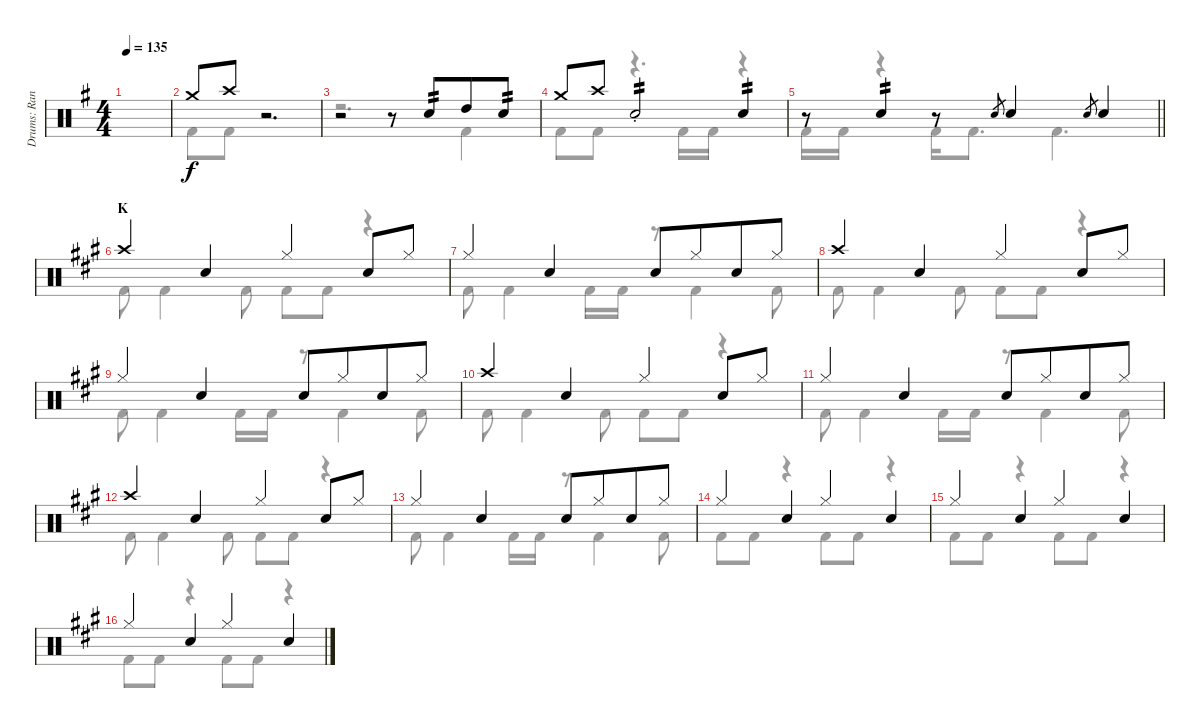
\track ("Drums: Randy" "Drums: Ran") {instrument percussion}
\staff {score}
\articulation defaults
\voice
\ts (4 4)
\tempo 135
\clef neutral
\ks g
|
"Crash medium (hit)".8 "Crash high (hit)".8 r.2{d} |
r.2 r.8 "Snare (hit) 2".8{tp 2 beam merge} "High Tom (hit)".8 "Snare (hit) 2".8{tp 2} |
"Crash medium (hit)".8 "Crash high (hit)".8 "Snare (hit) 2"{st}.2{tp 2} "Snare (hit) 2".4{tp 2} |
\barLineRight lightlight
r.8 "Snare (hit) 2".4{tp 2} r.8 "Electric Snare (hit)".8{gr} "Snare (hit) 2".4 "Electric Snare (hit)".8{gr} "Snare (hit) 2".4 |
\section ("" "K")
\ks a "Crash high (hit)".4 "Snare (hit) 2".4 "Hi-Hat (closed)".4 "Snare (hit) 2".8 "Hi-Hat (closed)".8
|
"Hi-Hat (closed)".4 "Snare (hit) 2".4 "Snare (hit) 2".8 "Hi-Hat (closed)".8{beam merge} "Snare (hit) 2".8 "Hi-Hat (closed)".8 |
"Crash high (hit)".4 "Snare (hit) 2".4 "Hi-Hat (closed)".4 "Snare (hit) 2".8 "Hi-Hat (closed)".8 |
"Hi-Hat (closed)".4 "Snare (hit) 2".4 "Snare (hit) 2".8 "Hi-Hat (closed)".8{beam merge} "Snare (hit) 2".8 "Hi-Hat (closed)".8 |
"Crash high (hit)".4 "Snare (hit) 2".4 "Hi-Hat (closed)".4 "Snare (hit) 2".8 "Hi-Hat (closed)".8 |
"Hi-Hat (closed)".4 "Snare (hit) 2".4 "Snare (hit) 2".8 "Hi-Hat (closed)".8{beam merge} "Snare (hit) 2".8 "Hi-Hat (closed)".8 |
"Crash high (hit)".4 "Snare (hit) 2".4 "Hi-Hat (closed)".4 "Snare (hit) 2".8 "Hi-Hat (closed)".8 |
"Hi-Hat (closed)".4 "Snare (hit) 2".4 "Snare (hit) 2".8 "Hi-Hat (closed)".8{beam merge} "Snare (hit) 2".8 "Hi-Hat (closed)".8 |
"Hi-Hat (closed)".4 "Snare (hit) 2".4 "Hi-Hat (closed)".4 "Snare (hit) 2".4 |
"Hi-Hat (closed)".4 "Snare (hit) 2".4 "Hi-Hat (closed)".4 "Snare (hit) 2".4 |
"Hi-Hat (closed)".4 "Snare (hit) 2".4 "Hi-Hat (closed)".4 "Snare (hit) 2".4
\voice
\clef neutral
\ottava regular
\simile none
\ks g
|
"Kick (hit) 2".8 "Kick (hit) 2".8 r.2{d} |
r.2{d} "Kick (hit) 2".4 |
"Kick (hit) 2".8 "Kick (hit) 2".8 r.4{d} "Kick (hit) 2".16 "Kick (hit) 2".16 r.4 |
\barLineRight lightlight "Kick (hit) 2".16 "Kick (hit) 2".16
r.4 "Kick (hit) 2".16 "Kick (hit) 2".8{d} "Kick (hit) 2".4{d} |
\ks a "Kick (hit) 2".8 "Kick (hit) 2".4 "Kick (hit) 2".8 "Kick (hit) 2".8 "Kick (hit) 2".8
r.4 |
"Kick (hit) 2".8 "Kick (hit) 2".4 "Kick (hit) 2".16 "Kick (hit) 2".16 r.8 "Kick (hit) 2".4 "Kick (hit) 2".8 |
"Kick (hit) 2".8 "Kick (hit) 2".4 "Kick (hit) 2".8 "Kick (hit) 2".8 "Kick (hit) 2".8 r.4 |
"Kick (hit) 2".8 "Kick (hit) 2".4 "Kick (hit) 2".16 "Kick (hit) 2".16 r.8 "Kick (hit) 2".4 "Kick (hit) 2".8 |
"Kick (hit) 2".8 "Kick (hit) 2".4 "Kick (hit) 2".8 "Kick (hit) 2".8 "Kick (hit) 2".8 r.4 |
"Kick (hit) 2".8 "Kick (hit) 2".4 "Kick (hit) 2".16 "Kick (hit) 2".16 r.8 "Kick (hit) 2".4 "Kick (hit) 2".8 |
"Kick (hit) 2".8 "Kick (hit) 2".4 "Kick (hit) 2".8 "Kick (hit) 2".8 "Kick (hit) 2".8 r.4 |
"Kick (hit) 2".8 "Kick (hit) 2".4 "Kick (hit) 2".16 "Kick (hit) 2".16 r.8 "Kick (hit) 2".4 "Kick (hit) 2".8 |
"Kick (hit) 2".8 "Kick (hit) 2".8 r.4 "Kick (hit) 2".8 "Kick (hit) 2".8 r.4 |
"Kick (hit) 2".8 "Kick (hit) 2".8 r.4 "Kick (hit) 2".8 "Kick (hit) 2".8 r.4 |
"Kick (hit) 2".8 "Kick (hit) 2".8 r.4 "Kick (hit) 2".8 "Kick (hit) 2".8 r.4
